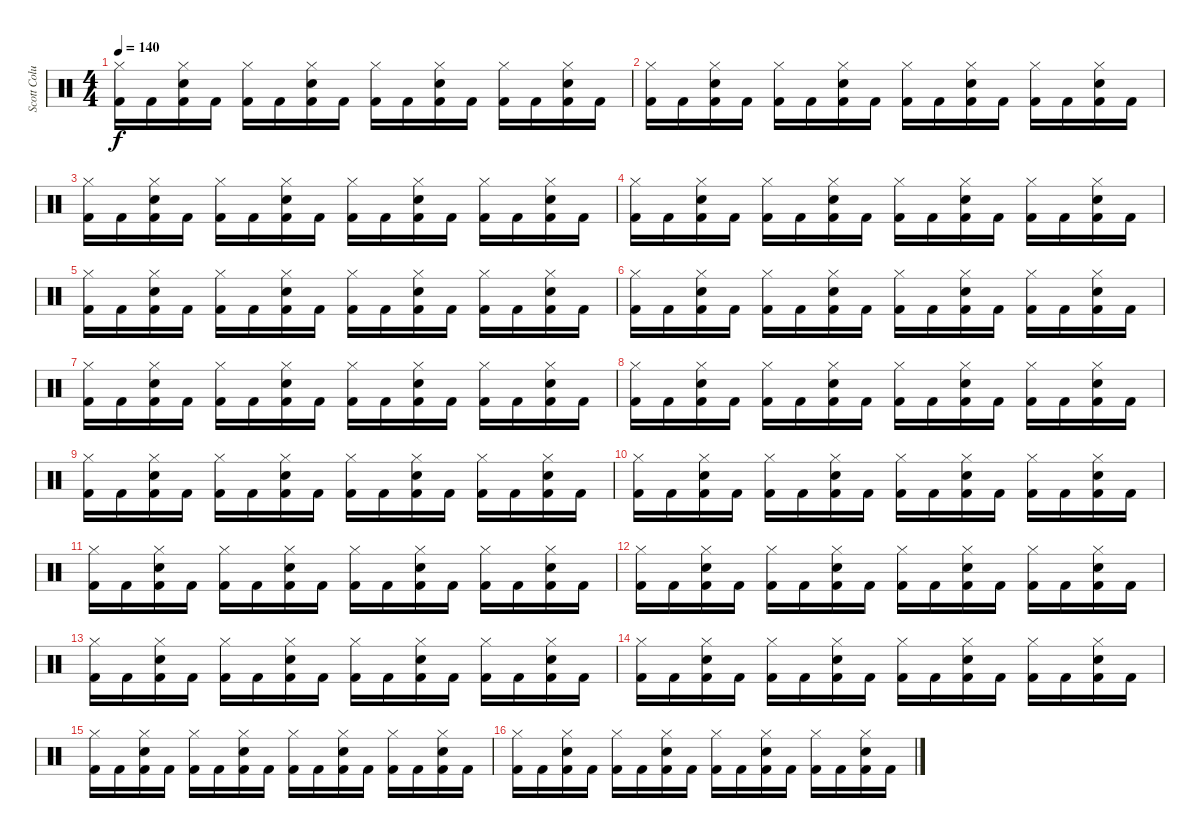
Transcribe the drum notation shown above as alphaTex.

\track ("Scott Columbus(Drums)" "Scott Colu") {instrument percussion}
\staff {score}
\articulation defaults
\ts (4 4)
\tempo 140
\clef neutral
\ks c
("Hi-Hat (closed)" "Kick (hit) 2").16{dy f} "Kick (hit) 2".16 ("Hi-Hat (closed)" "Snare (hit) 2" "Kick (hit) 2").16 "Kick (hit) 2".16 ("Hi-Hat (closed)" "Kick (hit) 2").16 "Kick (hit) 2".16 ("Hi-Hat (closed)" "Snare (hit) 2" "Kick (hit) 2").16 "Kick (hit) 2".16 ("Hi-Hat (closed)" "Kick (hit) 2").16 "Kick (hit) 2".16 ("Hi-Hat (closed)" "Snare (hit) 2" "Kick (hit) 2").16 "Kick (hit) 2".16 ("Hi-Hat (closed)" "Kick (hit) 2").16 "Kick (hit) 2".16 ("Hi-Hat (closed)" "Snare (hit) 2" "Kick (hit) 2").16 "Kick (hit) 2".16 |
("Hi-Hat (closed)" "Kick (hit) 2").16 "Kick (hit) 2".16 ("Hi-Hat (closed)" "Snare (hit) 2" "Kick (hit) 2").16 "Kick (hit) 2".16 ("Hi-Hat (closed)" "Kick (hit) 2").16 "Kick (hit) 2".16 ("Hi-Hat (closed)" "Snare (hit) 2" "Kick (hit) 2").16 "Kick (hit) 2".16 ("Hi-Hat (closed)" "Kick (hit) 2").16 "Kick (hit) 2".16 ("Hi-Hat (closed)" "Snare (hit) 2" "Kick (hit) 2").16 "Kick (hit) 2".16 ("Hi-Hat (closed)" "Kick (hit) 2").16 "Kick (hit) 2".16 ("Hi-Hat (closed)" "Snare (hit) 2" "Kick (hit) 2").16 "Kick (hit) 2".16 |
("Hi-Hat (closed)" "Kick (hit) 2").16 "Kick (hit) 2".16 ("Hi-Hat (closed)" "Snare (hit) 2" "Kick (hit) 2").16 "Kick (hit) 2".16 ("Hi-Hat (closed)" "Kick (hit) 2").16 "Kick (hit) 2".16 ("Hi-Hat (closed)" "Snare (hit) 2" "Kick (hit) 2").16 "Kick (hit) 2".16 ("Hi-Hat (closed)" "Kick (hit) 2").16 "Kick (hit) 2".16 ("Hi-Hat (closed)" "Snare (hit) 2" "Kick (hit) 2").16 "Kick (hit) 2".16 ("Hi-Hat (closed)" "Kick (hit) 2").16 "Kick (hit) 2".16 ("Hi-Hat (closed)" "Snare (hit) 2" "Kick (hit) 2").16 "Kick (hit) 2".16 |
("Hi-Hat (closed)" "Kick (hit) 2").16 "Kick (hit) 2".16 ("Hi-Hat (closed)" "Snare (hit) 2" "Kick (hit) 2").16 "Kick (hit) 2".16 ("Hi-Hat (closed)" "Kick (hit) 2").16 "Kick (hit) 2".16 ("Hi-Hat (closed)" "Snare (hit) 2" "Kick (hit) 2").16 "Kick (hit) 2".16 ("Hi-Hat (closed)" "Kick (hit) 2").16 "Kick (hit) 2".16 ("Hi-Hat (closed)" "Snare (hit) 2" "Kick (hit) 2").16 "Kick (hit) 2".16 ("Hi-Hat (closed)" "Kick (hit) 2").16 "Kick (hit) 2".16 ("Hi-Hat (closed)" "Snare (hit) 2" "Kick (hit) 2").16 "Kick (hit) 2".16 |
("Hi-Hat (closed)" "Kick (hit) 2").16 "Kick (hit) 2".16 ("Hi-Hat (closed)" "Snare (hit) 2" "Kick (hit) 2").16 "Kick (hit) 2".16 ("Hi-Hat (closed)" "Kick (hit) 2").16 "Kick (hit) 2".16 ("Hi-Hat (closed)" "Snare (hit) 2" "Kick (hit) 2").16 "Kick (hit) 2".16 ("Hi-Hat (closed)" "Kick (hit) 2").16 "Kick (hit) 2".16 ("Hi-Hat (closed)" "Snare (hit) 2" "Kick (hit) 2").16 "Kick (hit) 2".16 ("Hi-Hat (closed)" "Kick (hit) 2").16 "Kick (hit) 2".16 ("Hi-Hat (closed)" "Snare (hit) 2" "Kick (hit) 2").16 "Kick (hit) 2".16 |
("Hi-Hat (closed)" "Kick (hit) 2").16 "Kick (hit) 2".16 ("Hi-Hat (closed)" "Snare (hit) 2" "Kick (hit) 2").16 "Kick (hit) 2".16 ("Hi-Hat (closed)" "Kick (hit) 2").16 "Kick (hit) 2".16 ("Hi-Hat (closed)" "Snare (hit) 2" "Kick (hit) 2").16 "Kick (hit) 2".16 ("Hi-Hat (closed)" "Kick (hit) 2").16 "Kick (hit) 2".16 ("Hi-Hat (closed)" "Snare (hit) 2" "Kick (hit) 2").16 "Kick (hit) 2".16 ("Hi-Hat (closed)" "Kick (hit) 2").16 "Kick (hit) 2".16 ("Hi-Hat (closed)" "Snare (hit) 2" "Kick (hit) 2").16 "Kick (hit) 2".16 |
("Hi-Hat (closed)" "Kick (hit) 2").16 "Kick (hit) 2".16 ("Hi-Hat (closed)" "Snare (hit) 2" "Kick (hit) 2").16 "Kick (hit) 2".16 ("Hi-Hat (closed)" "Kick (hit) 2").16 "Kick (hit) 2".16 ("Hi-Hat (closed)" "Snare (hit) 2" "Kick (hit) 2").16 "Kick (hit) 2".16 ("Hi-Hat (closed)" "Kick (hit) 2").16 "Kick (hit) 2".16 ("Hi-Hat (closed)" "Snare (hit) 2" "Kick (hit) 2").16 "Kick (hit) 2".16 ("Hi-Hat (closed)" "Kick (hit) 2").16 "Kick (hit) 2".16 ("Hi-Hat (closed)" "Snare (hit) 2" "Kick (hit) 2").16 "Kick (hit) 2".16 |
("Hi-Hat (closed)" "Kick (hit) 2").16 "Kick (hit) 2".16 ("Hi-Hat (closed)" "Snare (hit) 2" "Kick (hit) 2").16 "Kick (hit) 2".16 ("Hi-Hat (closed)" "Kick (hit) 2").16 "Kick (hit) 2".16 ("Hi-Hat (closed)" "Snare (hit) 2" "Kick (hit) 2").16 "Kick (hit) 2".16 ("Hi-Hat (closed)" "Kick (hit) 2").16 "Kick (hit) 2".16 ("Hi-Hat (closed)" "Snare (hit) 2" "Kick (hit) 2").16 "Kick (hit) 2".16 ("Hi-Hat (closed)" "Kick (hit) 2").16 "Kick (hit) 2".16 ("Hi-Hat (closed)" "Snare (hit) 2" "Kick (hit) 2").16 "Kick (hit) 2".16 |
("Hi-Hat (closed)" "Kick (hit) 2").16 "Kick (hit) 2".16 ("Hi-Hat (closed)" "Snare (hit) 2" "Kick (hit) 2").16 "Kick (hit) 2".16 ("Hi-Hat (closed)" "Kick (hit) 2").16 "Kick (hit) 2".16 ("Hi-Hat (closed)" "Snare (hit) 2" "Kick (hit) 2").16 "Kick (hit) 2".16 ("Hi-Hat (closed)" "Kick (hit) 2").16 "Kick (hit) 2".16 ("Hi-Hat (closed)" "Snare (hit) 2" "Kick (hit) 2").16 "Kick (hit) 2".16 ("Hi-Hat (closed)" "Kick (hit) 2").16 "Kick (hit) 2".16 ("Hi-Hat (closed)" "Snare (hit) 2" "Kick (hit) 2").16 "Kick (hit) 2".16 |
("Hi-Hat (closed)" "Kick (hit) 2").16 "Kick (hit) 2".16 ("Hi-Hat (closed)" "Snare (hit) 2" "Kick (hit) 2").16 "Kick (hit) 2".16 ("Hi-Hat (closed)" "Kick (hit) 2").16 "Kick (hit) 2".16 ("Hi-Hat (closed)" "Snare (hit) 2" "Kick (hit) 2").16 "Kick (hit) 2".16 ("Hi-Hat (closed)" "Kick (hit) 2").16 "Kick (hit) 2".16 ("Hi-Hat (closed)" "Snare (hit) 2" "Kick (hit) 2").16 "Kick (hit) 2".16 ("Hi-Hat (closed)" "Kick (hit) 2").16 "Kick (hit) 2".16 ("Hi-Hat (closed)" "Snare (hit) 2" "Kick (hit) 2").16 "Kick (hit) 2".16 |
("Hi-Hat (closed)" "Kick (hit) 2").16 "Kick (hit) 2".16 ("Hi-Hat (closed)" "Snare (hit) 2" "Kick (hit) 2").16 "Kick (hit) 2".16 ("Hi-Hat (closed)" "Kick (hit) 2").16 "Kick (hit) 2".16 ("Hi-Hat (closed)" "Snare (hit) 2" "Kick (hit) 2").16 "Kick (hit) 2".16 ("Hi-Hat (closed)" "Kick (hit) 2").16 "Kick (hit) 2".16 ("Hi-Hat (closed)" "Snare (hit) 2" "Kick (hit) 2").16 "Kick (hit) 2".16 ("Hi-Hat (closed)" "Kick (hit) 2").16 "Kick (hit) 2".16 ("Hi-Hat (closed)" "Snare (hit) 2" "Kick (hit) 2").16 "Kick (hit) 2".16 |
("Hi-Hat (closed)" "Kick (hit) 2").16 "Kick (hit) 2".16 ("Hi-Hat (closed)" "Snare (hit) 2" "Kick (hit) 2").16 "Kick (hit) 2".16 ("Hi-Hat (closed)" "Kick (hit) 2").16 "Kick (hit) 2".16 ("Hi-Hat (closed)" "Snare (hit) 2" "Kick (hit) 2").16 "Kick (hit) 2".16 ("Hi-Hat (closed)" "Kick (hit) 2").16 "Kick (hit) 2".16 ("Hi-Hat (closed)" "Snare (hit) 2" "Kick (hit) 2").16 "Kick (hit) 2".16 ("Hi-Hat (closed)" "Kick (hit) 2").16 "Kick (hit) 2".16 ("Hi-Hat (closed)" "Snare (hit) 2" "Kick (hit) 2").16 "Kick (hit) 2".16 |
("Hi-Hat (closed)" "Kick (hit) 2").16 "Kick (hit) 2".16 ("Hi-Hat (closed)" "Snare (hit) 2" "Kick (hit) 2").16 "Kick (hit) 2".16 ("Hi-Hat (closed)" "Kick (hit) 2").16 "Kick (hit) 2".16 ("Hi-Hat (closed)" "Snare (hit) 2" "Kick (hit) 2").16 "Kick (hit) 2".16 ("Hi-Hat (closed)" "Kick (hit) 2").16 "Kick (hit) 2".16 ("Hi-Hat (closed)" "Snare (hit) 2" "Kick (hit) 2").16 "Kick (hit) 2".16 ("Hi-Hat (closed)" "Kick (hit) 2").16 "Kick (hit) 2".16 ("Hi-Hat (closed)" "Snare (hit) 2" "Kick (hit) 2").16 "Kick (hit) 2".16 |
("Hi-Hat (closed)" "Kick (hit) 2").16 "Kick (hit) 2".16 ("Hi-Hat (closed)" "Snare (hit) 2" "Kick (hit) 2").16 "Kick (hit) 2".16 ("Hi-Hat (closed)" "Kick (hit) 2").16 "Kick (hit) 2".16 ("Hi-Hat (closed)" "Snare (hit) 2" "Kick (hit) 2").16 "Kick (hit) 2".16 ("Hi-Hat (closed)" "Kick (hit) 2").16 "Kick (hit) 2".16 ("Hi-Hat (closed)" "Snare (hit) 2" "Kick (hit) 2").16 "Kick (hit) 2".16 ("Hi-Hat (closed)" "Kick (hit) 2").16 "Kick (hit) 2".16 ("Hi-Hat (closed)" "Snare (hit) 2" "Kick (hit) 2").16 "Kick (hit) 2".16 |
("Hi-Hat (closed)" "Kick (hit) 2").16 "Kick (hit) 2".16 ("Hi-Hat (closed)" "Snare (hit) 2" "Kick (hit) 2").16 "Kick (hit) 2".16 ("Hi-Hat (closed)" "Kick (hit) 2").16 "Kick (hit) 2".16 ("Hi-Hat (closed)" "Snare (hit) 2" "Kick (hit) 2").16 "Kick (hit) 2".16 ("Hi-Hat (closed)" "Kick (hit) 2").16 "Kick (hit) 2".16 ("Hi-Hat (closed)" "Snare (hit) 2" "Kick (hit) 2").16 "Kick (hit) 2".16 ("Hi-Hat (closed)" "Kick (hit) 2").16 "Kick (hit) 2".16 ("Hi-Hat (closed)" "Snare (hit) 2" "Kick (hit) 2").16 "Kick (hit) 2".16 |
("Hi-Hat (closed)" "Kick (hit) 2").16 "Kick (hit) 2".16 ("Hi-Hat (closed)" "Snare (hit) 2" "Kick (hit) 2").16 "Kick (hit) 2".16 ("Hi-Hat (closed)" "Kick (hit) 2").16 "Kick (hit) 2".16 ("Hi-Hat (closed)" "Snare (hit) 2" "Kick (hit) 2").16 "Kick (hit) 2".16 ("Hi-Hat (closed)" "Kick (hit) 2").16 "Kick (hit) 2".16 ("Hi-Hat (closed)" "Snare (hit) 2" "Kick (hit) 2").16 "Kick (hit) 2".16 ("Hi-Hat (closed)" "Kick (hit) 2").16 "Kick (hit) 2".16 ("Hi-Hat (closed)" "Snare (hit) 2" "Kick (hit) 2").16 "Kick (hit) 2".16
